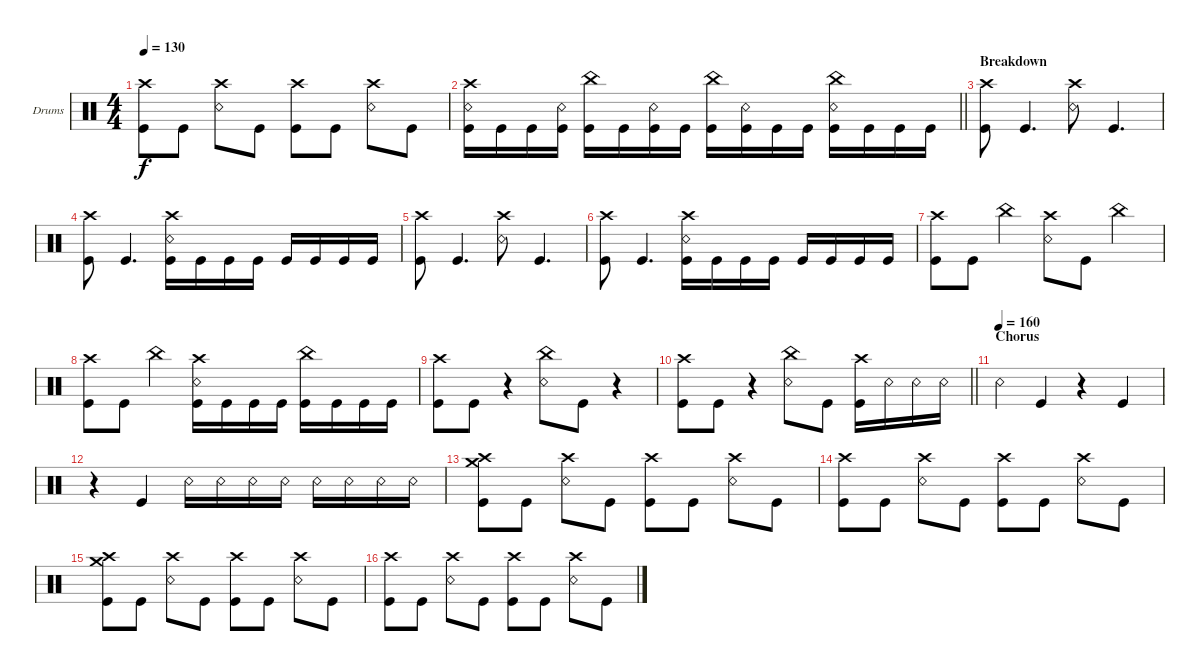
\bracketExtendMode groupsimilarinstruments
\firstSystemTrackNameOrientation horizontal
\otherSystemsTrackNameOrientation horizontal
\track ("Drums" "Drums") {instrument percussion}
\staff {score}
\articulation defaults
\ts (4 4)
\tempo 130
\clef neutral
\ks c
("Crash high (hit)" "Kick (hit)").8{dy f} "Kick (hit)".8 ("Crash high (hit)" "Snare (rim shot)").8 "Kick (hit)".8 ("Crash high (hit)" "Kick (hit)").8 "Kick (hit)".8 ("Crash high (hit)" "Snare (rim shot)").8 "Kick (hit)".8 |
\barLineRight lightlight
("Crash high (hit)" "Snare (rim shot)" "Kick (hit)").16 "Kick (hit)".16 "Kick (hit)".16 ("Kick (hit)" "Snare (rim shot)").16 ("Kick (hit)" "China (hit)").16 "Kick (hit)".16 ("Kick (hit)" "Snare (rim shot)").16 "Kick (hit)".16 ("Kick (hit)" "China (hit)").16 ("Kick (hit)" "Snare (rim shot)").16 "Kick (hit)".16 "Kick (hit)".16 ("China (hit)" "Snare (rim shot)" "Kick (hit)").16 "Kick (hit)".16 "Kick (hit)".16 "Kick (hit)".16 |
\section ("" "Breakdown")
("Crash high (hit)" "Kick (hit)").8 "Kick (hit)".4{d} ("Crash high (hit)" "Snare (rim shot)").8 "Kick (hit)".4{d} |
("Crash high (hit)" "Kick (hit)").8 "Kick (hit)".4{d} ("Crash high (hit)" "Snare (rim shot)" "Kick (hit)").16 "Kick (hit)".16 "Kick (hit)".16 "Kick (hit)".16 "Kick (hit)".16 "Kick (hit)".16 "Kick (hit)".16 "Kick (hit)".16 |
("Crash high (hit)" "Kick (hit)").8 "Kick (hit)".4{d} ("Crash high (hit)" "Snare (rim shot)").8 "Kick (hit)".4{d} |
("Crash high (hit)" "Kick (hit)").8 "Kick (hit)".4{d} ("Crash high (hit)" "Snare (rim shot)" "Kick (hit)").16 "Kick (hit)".16 "Kick (hit)".16 "Kick (hit)".16 "Kick (hit)".16 "Kick (hit)".16 "Kick (hit)".16 "Kick (hit)".16 |
("Crash high (hit)" "Kick (hit)").8 "Kick (hit)".8 "China (hit)".4 ("Crash high (hit)" "Snare (rim shot)").8 "Kick (hit)".8 "China (hit)".4 |
("Crash high (hit)" "Kick (hit)").8 "Kick (hit)".8 "China (hit)".4 ("Crash high (hit)" "Snare (rim shot)" "Kick (hit)").16 "Kick (hit)".16 "Kick (hit)".16 "Kick (hit)".16 ("China (hit)" "Kick (hit)").16 "Kick (hit)".16 "Kick (hit)".16 "Kick (hit)".16 |
("Crash high (hit)" "Kick (hit)").8 "Kick (hit)".8 r.4 ("Snare (rim shot)" "China (hit)").8 "Kick (hit)".8 r.4 |
\barLineRight lightlight
("Crash high (hit)" "Kick (hit)").8 "Kick (hit)".8 r.4 ("Snare (rim shot)" "China (hit)").8 "Kick (hit)".8 ("Kick (hit)" "Crash high (hit)").16 "Snare (rim shot)".16 "Snare (rim shot)".16 "Snare (rim shot)".16 |
\section ("" "Chorus")
\tempo (160)
"Snare (rim shot)".4 "Kick (hit)".4 r.4 "Kick (hit)".4 |
r.4 "Kick (hit)".4 "Snare (rim shot)".16 "Snare (rim shot)".16 "Snare (rim shot)".16 "Snare (rim shot)".16 "Snare (rim shot)".16 "Snare (rim shot)".16 "Snare (rim shot)".16 "Snare (rim shot)".16 |
("Kick (hit)" "Crash high (hit)" "Crash medium (hit)").8 "Kick (hit)".8 ("Snare (rim shot)" "Crash high (hit)").8 "Kick (hit)".8 ("Kick (hit)" "Crash high (hit)").8 "Kick (hit)".8 ("Snare (rim shot)" "Crash high (hit)").8 "Kick (hit)".8 |
("Kick (hit)" "Crash high (hit)").8 "Kick (hit)".8 ("Snare (rim shot)" "Crash high (hit)").8 "Kick (hit)".8 ("Kick (hit)" "Crash high (hit)").8 "Kick (hit)".8 ("Snare (rim shot)" "Crash high (hit)").8 "Kick (hit)".8 |
("Kick (hit)" "Crash high (hit)" "Crash medium (hit)").8 "Kick (hit)".8 ("Snare (rim shot)" "Crash high (hit)").8 "Kick (hit)".8 ("Kick (hit)" "Crash high (hit)").8 "Kick (hit)".8 ("Snare (rim shot)" "Crash high (hit)").8 "Kick (hit)".8 |
("Kick (hit)" "Crash high (hit)").8 "Kick (hit)".8 ("Snare (rim shot)" "Crash high (hit)").8 "Kick (hit)".8 ("Kick (hit)" "Crash high (hit)").8 "Kick (hit)".8 ("Snare (rim shot)" "Crash high (hit)").8 "Kick (hit)".8
